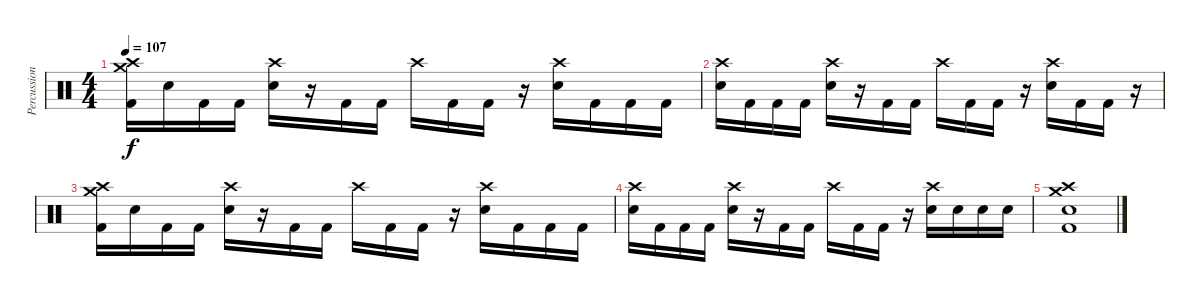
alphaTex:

\track ("Percussion" "Percussion") {instrument percussion}
\staff {score}
\articulation defaults
\ts (4 4)
\tempo 107
\clef neutral
\ks c
("Crash high (hit)" "Crash medium (hit)" "Kick (hit) 2").16{dy f} "Electric Snare (hit)".16 "Kick (hit) 2".16 "Kick (hit) 2".16 ("Crash high (hit)" "Electric Snare (hit)").16 r.16 "Kick (hit) 2".16 "Kick (hit) 2".16 "Crash high (hit)".16 "Kick (hit) 2".16 "Kick (hit) 2".16 r.16 ("Crash high (hit)" "Electric Snare (hit)").16 "Kick (hit) 2".16 "Kick (hit) 2".16 "Kick (hit) 2".16 |
("Crash high (hit)" "Electric Snare (hit)").16 "Kick (hit) 2".16 "Kick (hit) 2".16 "Kick (hit) 2".16 ("Crash high (hit)" "Electric Snare (hit)").16 r.16 "Kick (hit) 2".16 "Kick (hit) 2".16 "Crash high (hit)".16 "Kick (hit) 2".16 "Kick (hit) 2".16 r.16 ("Crash high (hit)" "Electric Snare (hit)").16 "Kick (hit) 2".16 "Kick (hit) 2".16 r.16 |
("Crash high (hit)" "Crash medium (hit)" "Kick (hit) 2").16 "Electric Snare (hit)".16 "Kick (hit) 2".16 "Kick (hit) 2".16 ("Crash high (hit)" "Electric Snare (hit)").16 r.16 "Kick (hit) 2".16 "Kick (hit) 2".16 "Crash high (hit)".16 "Kick (hit) 2".16 "Kick (hit) 2".16 r.16 ("Crash high (hit)" "Electric Snare (hit)").16 "Kick (hit) 2".16 "Kick (hit) 2".16 "Kick (hit) 2".16 |
("Crash high (hit)" "Electric Snare (hit)").16 "Kick (hit) 2".16 "Kick (hit) 2".16 "Kick (hit) 2".16 ("Crash high (hit)" "Electric Snare (hit)").16 r.16 "Kick (hit) 2".16 "Kick (hit) 2".16 "Crash high (hit)".16 "Kick (hit) 2".16 "Kick (hit) 2".16 r.16 ("Crash high (hit)" "Electric Snare (hit)").16 "Electric Snare (hit)".16 "Electric Snare (hit)".16 "Electric Snare (hit)".16 |
("Crash high (hit)" "Crash medium (hit)" "Electric Snare (hit)" "Kick (hit) 2").1
